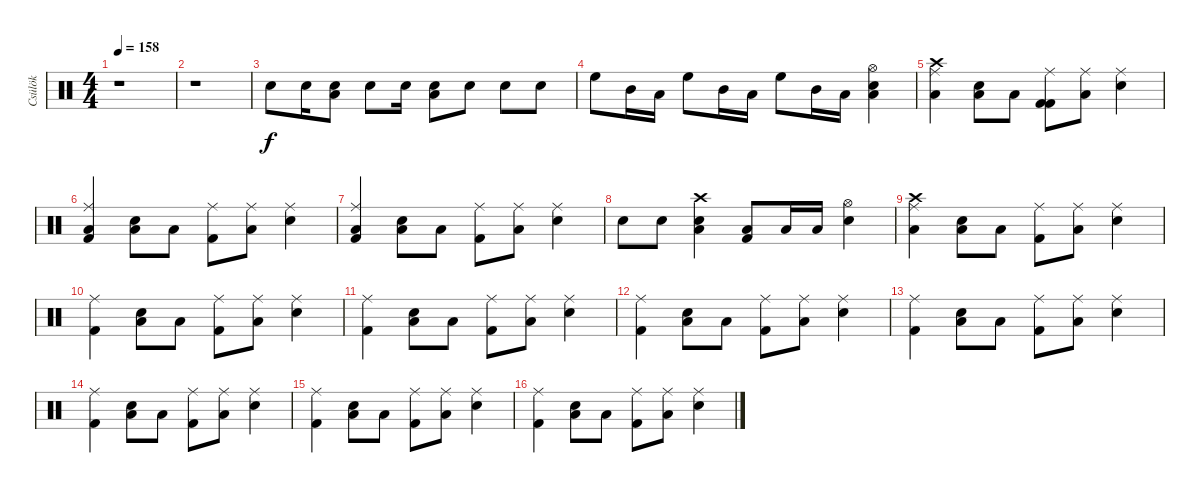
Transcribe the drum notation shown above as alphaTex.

\track ("Csülök" "Csülök") {instrument percussion}
\staff {score}
\articulation defaults
\ts (4 4)
\tempo 158
\clef neutral
\ks c
r.1{dy f} |
r.1 |
"Snare (hit) 2".8 "Snare (hit) 2".16 ("Low Tom (hit)" "Snare (hit) 2").8 "Snare (hit) 2".8 "Snare (hit) 2".16 ("Low Tom (hit)" "Snare (hit) 2").8 "Snare (hit) 2".8 "Snare (hit) 2".8 "Snare (hit) 2".8 |
"High Floor Tom (hit)".8 "Mid Tom (hit)".16 "Low Tom (hit)".16 "High Floor Tom (hit)".8 "Mid Tom (hit)".16 "Low Tom (hit)".16 "High Floor Tom (hit)".8 "Mid Tom (hit)".16 "Low Tom (hit)".16 ("Hi-Hat (open)" "Snare (hit) 2" "Low Tom (hit)").4 |
("Crash high (hit)" "Low Tom (hit)" "Ride (middle)").4 ("Snare (hit) 2" "Low Tom (hit)").8 "Low Tom (hit)".8 ("Kick (hit) 2" "Ride (middle)" "Kick (hit) 2").8 ("Low Tom (hit)" "Ride (middle)").8 ("Snare (hit) 2" "Ride (middle)").4 |
("Low Tom (hit)" "Ride (middle)" "Kick (hit) 2").4 ("Snare (hit) 2" "Low Tom (hit)").8 "Low Tom (hit)".8 ("Kick (hit) 2" "Ride (middle)").8 ("Low Tom (hit)" "Ride (middle)").8 ("Snare (hit) 2" "Ride (middle)").4 |
("Low Tom (hit)" "Ride (middle)" "Kick (hit) 2").4 ("Snare (hit) 2" "Low Tom (hit)").8 "Low Tom (hit)".8 ("Kick (hit) 2" "Ride (middle)").8 ("Low Tom (hit)" "Ride (middle)").8 ("Snare (hit) 2" "Ride (middle)").4 |
"Snare (hit) 2".8 "Snare (hit) 2".8 ("Crash high (hit)" "Snare (hit) 2" "Low Tom (hit)").4 ("Kick (hit) 2" "Low Tom (hit)").8 "Low Tom (hit)".16 "Low Tom (hit)".16 ("Hi-Hat (open)" "Snare (hit) 2").4 |
("Crash high (hit)" "Low Tom (hit)" "Ride (middle)").4 ("Snare (hit) 2" "Low Tom (hit)").8 "Low Tom (hit)".8 ("Kick (hit) 2" "Ride (middle)").8 ("Low Tom (hit)" "Ride (middle)").8 ("Snare (hit) 2" "Ride (middle)").4 |
("Kick (hit) 2" "Ride (middle)").4 ("Snare (hit) 2" "Low Tom (hit)").8 "Low Tom (hit)".8 ("Kick (hit) 2" "Ride (middle)").8 ("Low Tom (hit)" "Ride (middle)").8 ("Snare (hit) 2" "Ride (middle)").4 |
("Kick (hit) 2" "Ride (middle)").4 ("Snare (hit) 2" "Low Tom (hit)").8 "Low Tom (hit)".8 ("Kick (hit) 2" "Ride (middle)").8 ("Low Tom (hit)" "Ride (middle)").8 ("Snare (hit) 2" "Ride (middle)").4 |
("Kick (hit) 2" "Ride (middle)").4 ("Snare (hit) 2" "Low Tom (hit)").8 "Low Tom (hit)".8 ("Kick (hit) 2" "Ride (middle)").8 ("Low Tom (hit)" "Ride (middle)").8 ("Snare (hit) 2" "Ride (middle)").4 |
("Kick (hit) 2" "Ride (middle)").4 ("Snare (hit) 2" "Low Tom (hit)").8 "Low Tom (hit)".8 ("Kick (hit) 2" "Ride (middle)").8 ("Low Tom (hit)" "Ride (middle)").8 ("Snare (hit) 2" "Ride (middle)").4 |
("Kick (hit) 2" "Ride (middle)").4 ("Snare (hit) 2" "Low Tom (hit)").8 "Low Tom (hit)".8 ("Kick (hit) 2" "Ride (middle)").8 ("Low Tom (hit)" "Ride (middle)").8 ("Snare (hit) 2" "Ride (middle)").4 |
("Kick (hit) 2" "Ride (middle)").4 ("Snare (hit) 2" "Low Tom (hit)").8 "Low Tom (hit)".8 ("Kick (hit) 2" "Ride (middle)").8 ("Low Tom (hit)" "Ride (middle)").8 ("Snare (hit) 2" "Ride (middle)").4 |
("Kick (hit) 2" "Ride (middle)").4 ("Snare (hit) 2" "Low Tom (hit)").8 "Low Tom (hit)".8 ("Kick (hit) 2" "Ride (middle)").8 ("Low Tom (hit)" "Ride (middle)").8 ("Snare (hit) 2" "Ride (middle)").4
